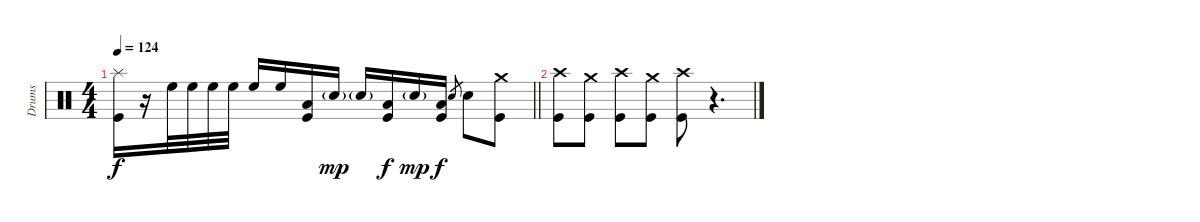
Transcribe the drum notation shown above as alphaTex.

\track ("Drums" "Drums") {instrument percussion}
\staff {score}
\articulation defaults
\ts (4 4)
\tempo 124
\clef neutral
\barLineRight lightlight
\ks c
("Splash (hit)" "Kick (hit)").16{dy f} r.16 "High Floor Tom (hit)".32 "High Floor Tom (hit)".32 "High Floor Tom (hit)".32 "High Floor Tom (hit)".32 "High Floor Tom (hit)".16 "High Floor Tom (hit)".16 ("Low Tom (hit)" "Kick (hit)").16 "Snare (hit) 2"{g}.16{dy mp} "Snare (hit) 2"{g}.16 ("Low Tom (hit)" "Kick (hit)").16{dy f} "Snare (hit) 2"{g}.16{dy mp} ("Low Tom (hit)" "Kick (hit)").16{dy f} "Snare (hit) 2".8{gr} "Snare (hit) 2".8 ("Crash medium (hit)" "Kick (hit)").8 |
("Crash high (hit)" "Kick (hit)").8 ("Crash medium (hit)" "Kick (hit)").8 ("Crash high (hit)" "Kick (hit)").8 ("Crash medium (hit)" "Kick (hit)").8 ("Crash high (hit)" "Kick (hit)").8 r.4{d}
